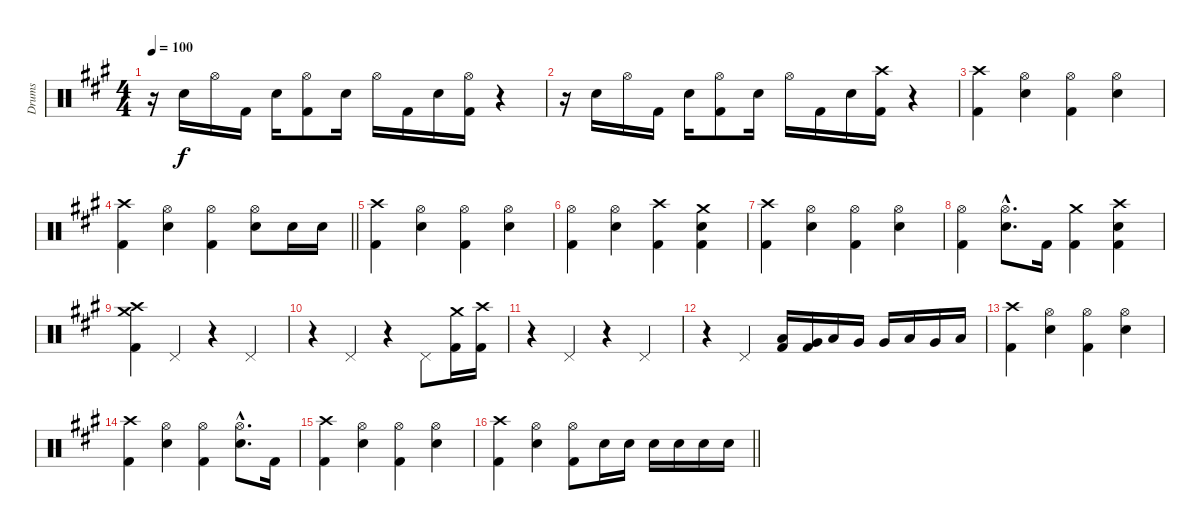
\track ("Drums" "Drums") {instrument percussion}
\staff {score}
\articulation defaults
\ts (4 4)
\tempo 100
\clef neutral
\ks f#minor
r.16{dy f} "Snare (hit) 2".16 "Hi-Hat (open)".16 "Kick (hit) 2".16 "Snare (hit) 2".16 ("Hi-Hat (open)" "Kick (hit) 2").8 "Snare (hit) 2".16 "Hi-Hat (open)".16 "Kick (hit) 2".16 "Snare (hit) 2".16 ("Hi-Hat (open)" "Kick (hit) 2").16 r.4 |
r.16 "Snare (hit) 2".16 "Hi-Hat (open)".16 "Kick (hit) 2".16 "Snare (hit) 2".16 ("Hi-Hat (open)" "Kick (hit) 2").8 "Snare (hit) 2".16 "Hi-Hat (open)".16 "Kick (hit) 2".16 "Snare (hit) 2".16 ("Crash high (hit)" "Kick (hit) 2").16 r.4 |
("Crash high (hit)" "Kick (hit) 2").4 ("Hi-Hat (open)" "Snare (hit) 2").4 ("Hi-Hat (open)" "Kick (hit) 2").4 ("Hi-Hat (open)" "Snare (hit) 2").4 |
\barLineRight lightlight
("Crash high (hit)" "Kick (hit) 2").4 ("Hi-Hat (open)" "Snare (hit) 2").4 ("Hi-Hat (open)" "Kick (hit) 2").4 ("Hi-Hat (open)" "Snare (hit) 2").8 "Snare (hit) 2".16 "Snare (hit) 2".16 |
("Crash high (hit)" "Kick (hit) 2").4 ("Hi-Hat (open)" "Snare (hit) 2").4 ("Hi-Hat (open)" "Kick (hit) 2").4 ("Hi-Hat (open)" "Snare (hit) 2").4 |
("Hi-Hat (open)" "Kick (hit) 2").4 ("Hi-Hat (open)" "Snare (hit) 2").4 ("Crash high (hit)" "Kick (hit) 2").4 ("Crash medium (hit)" "Snare (hit) 2" "Kick (hit) 2").4 |
("Crash high (hit)" "Kick (hit) 2").4 ("Hi-Hat (open)" "Snare (hit) 2").4 ("Hi-Hat (open)" "Kick (hit) 2").4 ("Hi-Hat (open)" "Snare (hit) 2").4 |
("Hi-Hat (open)" "Kick (hit) 2").4 ("Hi-Hat (open)"{hac} "Snare (hit) 2"{hac}).8{d} "Kick (hit) 2".16 ("Crash medium (hit)" "Kick (hit) 2").4 ("Crash high (hit)" "Snare (hit) 2" "Kick (hit) 2").4 |
("Crash high (hit)" "Crash medium (hit)" "Kick (hit) 2").4 "Pedal Hi-Hat (hit)".4 r.4 "Pedal Hi-Hat (hit)".4 |
r.4 "Pedal Hi-Hat (hit)".4 r.4 "Pedal Hi-Hat (hit)".8 ("Crash medium (hit)" "Kick (hit) 2").16 ("Crash high (hit)" "Kick (hit) 2").16 |
r.4 "Pedal Hi-Hat (hit)".4 r.4 "Pedal Hi-Hat (hit)".4 |
r.4 "Pedal Hi-Hat (hit)".4 ("Low Tom (hit)" "Kick (hit) 2").16 ("Very Low Tom (hit)" "Kick (hit) 2").16 "Low Tom (hit)".16 "Very Low Tom (hit)".16 "Very Low Tom (hit)".16 "Low Floor Tom (hit)".16 "Very Low Tom (hit)".16 "Low Floor Tom (hit)".16 |
("Crash high (hit)" "Kick (hit) 2").4 ("Hi-Hat (open)" "Snare (hit) 2").4 ("Hi-Hat (open)" "Kick (hit) 2").4 ("Hi-Hat (open)" "Snare (hit) 2").4 |
("Crash high (hit)" "Kick (hit) 2").4 ("Hi-Hat (open)" "Snare (hit) 2").4 ("Hi-Hat (open)" "Kick (hit) 2").4 ("Hi-Hat (open)"{hac} "Snare (hit) 2"{hac}).8{d} "Kick (hit) 2".16 |
("Crash high (hit)" "Kick (hit) 2").4 ("Hi-Hat (open)" "Snare (hit) 2").4 ("Hi-Hat (open)" "Kick (hit) 2").4 ("Hi-Hat (open)" "Snare (hit) 2").4 |
\barLineRight lightlight
("Crash high (hit)" "Kick (hit) 2").4 ("Hi-Hat (open)" "Snare (hit) 2").4 ("Hi-Hat (open)" "Kick (hit) 2").8 "Snare (hit) 2".16 "Snare (hit) 2".16 "Snare (hit) 2".16 "Snare (hit) 2".16 "Snare (hit) 2".16 "Snare (hit) 2".16
